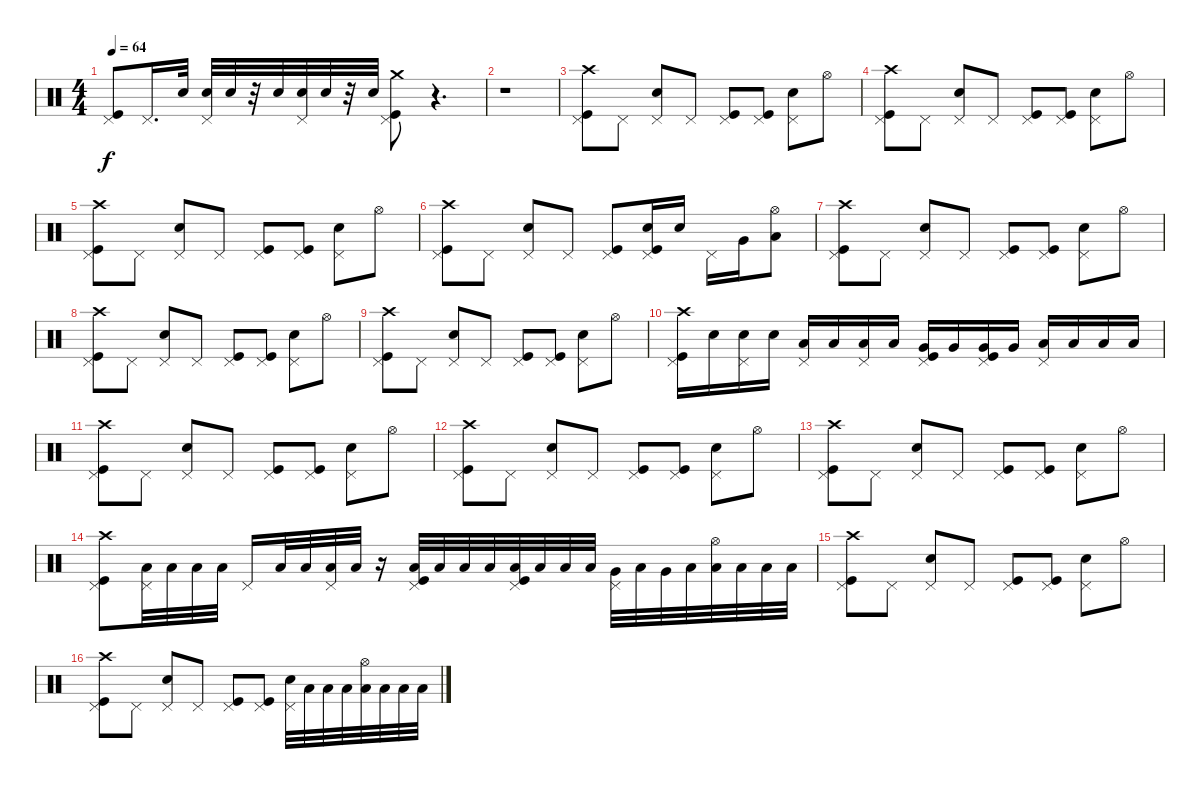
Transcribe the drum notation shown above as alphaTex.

\track "" {instrument percussion}
\staff {score}
\articulation defaults
\ts (4 4)
\tempo 64
\clef neutral
\ks c
("Kick (hit)" "Pedal Hi-Hat (hit)").8{dy f} "Pedal Hi-Hat (hit)".16{d} "Snare (hit) 2".32 ("Snare (hit) 2" "Pedal Hi-Hat (hit)").32 "Snare (hit) 2".32 r.32 "Snare (hit) 2".32 ("Snare (hit) 2" "Pedal Hi-Hat (hit)").32 "Snare (hit) 2".32 r.32 "Snare (hit) 2".32 ("Crash medium (hit)" "Kick (hit)" "Pedal Hi-Hat (hit)").8 r.4{d} |
r.1 |
("Crash high (hit)" "Kick (hit)" "Pedal Hi-Hat (hit)").8 "Pedal Hi-Hat (hit)".8 ("Snare (hit) 2" "Pedal Hi-Hat (hit)").8 "Pedal Hi-Hat (hit)".8 ("Kick (hit)" "Pedal Hi-Hat (hit)").8 ("Kick (hit)" "Pedal Hi-Hat (hit)").8 ("Snare (hit) 2" "Pedal Hi-Hat (hit)").8 "Hi-Hat (open)".8 |
("Crash high (hit)" "Kick (hit)" "Pedal Hi-Hat (hit)").8 "Pedal Hi-Hat (hit)".8 ("Snare (hit) 2" "Pedal Hi-Hat (hit)").8 "Pedal Hi-Hat (hit)".8 ("Kick (hit)" "Pedal Hi-Hat (hit)").8 ("Kick (hit)" "Pedal Hi-Hat (hit)").8 ("Snare (hit) 2" "Pedal Hi-Hat (hit)").8 "Hi-Hat (open)".8 |
("Crash high (hit)" "Kick (hit)" "Pedal Hi-Hat (hit)").8 "Pedal Hi-Hat (hit)".8 ("Snare (hit) 2" "Pedal Hi-Hat (hit)").8 "Pedal Hi-Hat (hit)".8 ("Kick (hit)" "Pedal Hi-Hat (hit)").8 ("Kick (hit)" "Pedal Hi-Hat (hit)").8 ("Snare (hit) 2" "Pedal Hi-Hat (hit)").8 "Hi-Hat (open)".8 |
("Crash high (hit)" "Kick (hit)" "Pedal Hi-Hat (hit)").8 "Pedal Hi-Hat (hit)".8 ("Snare (hit) 2" "Pedal Hi-Hat (hit)").8 "Pedal Hi-Hat (hit)".8 ("Kick (hit)" "Pedal Hi-Hat (hit)").8 ("Snare (hit) 2" "Kick (hit)" "Pedal Hi-Hat (hit)").16 "Snare (hit) 2".16 "Pedal Hi-Hat (hit)".16 "Very Low Tom (hit)".16 ("Low Tom (hit)" "Hi-Hat (open)").8 |
("Crash high (hit)" "Kick (hit)" "Pedal Hi-Hat (hit)").8 "Pedal Hi-Hat (hit)".8 ("Snare (hit) 2" "Pedal Hi-Hat (hit)").8 "Pedal Hi-Hat (hit)".8 ("Kick (hit)" "Pedal Hi-Hat (hit)").8 ("Kick (hit)" "Pedal Hi-Hat (hit)").8 ("Snare (hit) 2" "Pedal Hi-Hat (hit)").8 "Hi-Hat (open)".8 |
("Crash high (hit)" "Kick (hit)" "Pedal Hi-Hat (hit)").8 "Pedal Hi-Hat (hit)".8 ("Snare (hit) 2" "Pedal Hi-Hat (hit)").8 "Pedal Hi-Hat (hit)".8 ("Kick (hit)" "Pedal Hi-Hat (hit)").8 ("Kick (hit)" "Pedal Hi-Hat (hit)").8 ("Snare (hit) 2" "Pedal Hi-Hat (hit)").8 "Hi-Hat (open)".8 |
("Crash high (hit)" "Kick (hit)" "Pedal Hi-Hat (hit)").8 "Pedal Hi-Hat (hit)".8 ("Snare (hit) 2" "Pedal Hi-Hat (hit)").8 "Pedal Hi-Hat (hit)".8 ("Kick (hit)" "Pedal Hi-Hat (hit)").8 ("Kick (hit)" "Pedal Hi-Hat (hit)").8 ("Snare (hit) 2" "Pedal Hi-Hat (hit)").8 "Hi-Hat (open)".8 |
("Crash high (hit)" "Kick (hit)" "Pedal Hi-Hat (hit)").16 "Snare (hit) 2".16 ("Snare (hit) 2" "Pedal Hi-Hat (hit)").16 "Snare (hit) 2".16 ("Low Floor Tom (hit)" "Pedal Hi-Hat (hit)").16 "Low Floor Tom (hit)".16 ("Low Floor Tom (hit)" "Pedal Hi-Hat (hit)").16 "Low Floor Tom (hit)".16 ("Very Low Tom (hit)" "Kick (hit)" "Pedal Hi-Hat (hit)").16 "Very Low Tom (hit)".16 ("Very Low Tom (hit)" "Kick (hit)" "Pedal Hi-Hat (hit)").16 "Very Low Tom (hit)".16 ("Low Tom (hit)" "Pedal Hi-Hat (hit)").16 "Low Tom (hit)".16 "Low Tom (hit)".16 "Low Tom (hit)".16 |
("Crash high (hit)" "Kick (hit)" "Pedal Hi-Hat (hit)").8 "Pedal Hi-Hat (hit)".8 ("Snare (hit) 2" "Pedal Hi-Hat (hit)").8 "Pedal Hi-Hat (hit)".8 ("Kick (hit)" "Pedal Hi-Hat (hit)").8 ("Kick (hit)" "Pedal Hi-Hat (hit)").8 ("Snare (hit) 2" "Pedal Hi-Hat (hit)").8 "Hi-Hat (open)".8 |
("Crash high (hit)" "Kick (hit)" "Pedal Hi-Hat (hit)").8 "Pedal Hi-Hat (hit)".8 ("Snare (hit) 2" "Pedal Hi-Hat (hit)").8 "Pedal Hi-Hat (hit)".8 ("Kick (hit)" "Pedal Hi-Hat (hit)").8 ("Kick (hit)" "Pedal Hi-Hat (hit)").8 ("Snare (hit) 2" "Pedal Hi-Hat (hit)").8 "Hi-Hat (open)".8 |
("Crash high (hit)" "Kick (hit)" "Pedal Hi-Hat (hit)").8 "Pedal Hi-Hat (hit)".8 ("Snare (hit) 2" "Pedal Hi-Hat (hit)").8 "Pedal Hi-Hat (hit)".8 ("Kick (hit)" "Pedal Hi-Hat (hit)").8 ("Kick (hit)" "Pedal Hi-Hat (hit)").8 ("Snare (hit) 2" "Pedal Hi-Hat (hit)").8 "Hi-Hat (open)".8 |
("Crash high (hit)" "Kick (hit)" "Pedal Hi-Hat (hit)").8 ("Low Floor Tom (hit)" "Pedal Hi-Hat (hit)").32 "Low Floor Tom (hit)".32 "Low Floor Tom (hit)".32 "Low Floor Tom (hit)".32 "Pedal Hi-Hat (hit)".16 "Low Floor Tom (hit)".32 "Low Floor Tom (hit)".32 ("Low Floor Tom (hit)" "Pedal Hi-Hat (hit)").32 "Low Floor Tom (hit)".32 r.16 ("Low Floor Tom (hit)" "Kick (hit)" "Pedal Hi-Hat (hit)").32 "Low Floor Tom (hit)".32 "Low Floor Tom (hit)".32 "Low Floor Tom (hit)".32 ("Low Floor Tom (hit)" "Kick (hit)" "Pedal Hi-Hat (hit)").32 "Low Floor Tom (hit)".32 "Low Floor Tom (hit)".32 "Low Floor Tom (hit)".32 ("Very Low Tom (hit)" "Pedal Hi-Hat (hit)").32 "Low Floor Tom (hit)".32 "Very Low Tom (hit)".32 "Low Floor Tom (hit)".32 ("Low Tom (hit)" "Hi-Hat (open)").32 "Low Floor Tom (hit)".32 "Low Tom (hit)".32 "Low Floor Tom (hit)".32 |
("Crash high (hit)" "Kick (hit)" "Pedal Hi-Hat (hit)").8 "Pedal Hi-Hat (hit)".8 ("Snare (hit) 2" "Pedal Hi-Hat (hit)").8 "Pedal Hi-Hat (hit)".8 ("Kick (hit)" "Pedal Hi-Hat (hit)").8 ("Kick (hit)" "Pedal Hi-Hat (hit)").8 ("Snare (hit) 2" "Pedal Hi-Hat (hit)").8 "Hi-Hat (open)".8 |
("Kick (hit)" "Pedal Hi-Hat (hit)" "Crash high (hit)").8 "Pedal Hi-Hat (hit)".8 ("Snare (hit) 2" "Pedal Hi-Hat (hit)").8 "Pedal Hi-Hat (hit)".8 ("Kick (hit)" "Pedal Hi-Hat (hit)").8 ("Kick (hit)" "Pedal Hi-Hat (hit)").8 ("Snare (hit) 2" "Pedal Hi-Hat (hit)").32 "Low Floor Tom (hit)".32 "Low Floor Tom (hit)".32 "Low Floor Tom (hit)".32 ("Low Floor Tom (hit)" "Hi-Hat (open)").32 "Low Floor Tom (hit)".32 "Low Floor Tom (hit)".32 "Low Floor Tom (hit)".32
